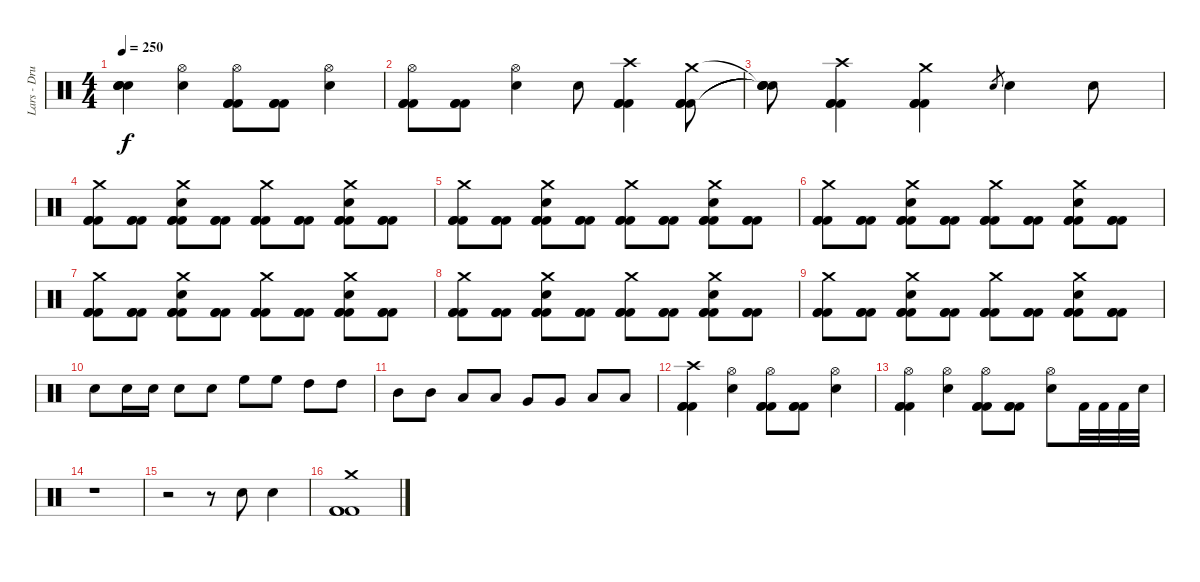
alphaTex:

\track ("Lars - Drums" "Lars - Dru") {instrument percussion}
\staff {score}
\articulation defaults
\ts (4 4)
\tempo 250
\clef neutral
\ks c
("Snare (hit)"{t} "Snare (hit)"{t} "Snare (hit)"{t} "Snare (hit)"{t}).4{dy f} ("Hi-Hat (open)" "Snare (hit) 2").4 ("Hi-Hat (open)" "Kick (hit) 2" "Kick (hit) 2" "Kick (hit) 2").8 ("Kick (hit) 2" "Kick (hit) 2" "Kick (hit) 2").8 ("Hi-Hat (open)" "Snare (hit) 2").4 |
("Hi-Hat (open)" "Kick (hit) 2" "Kick (hit) 2" "Kick (hit) 2").8 ("Kick (hit) 2" "Kick (hit) 2" "Kick (hit) 2").8 ("Hi-Hat (open)" "Snare (hit) 2").4 "Snare (hit) 2".8 ("Crash high (hit)" "Kick (hit) 2" "Kick (hit) 2" "Kick (hit) 2").4 ("Crash medium (hit)" "Kick (hit) 2" "Kick (hit) 2" "Kick (hit) 2").8 |
("Snare (hit)"{t} "Snare (hit)"{t} "Snare (hit)"{t} "Snare (hit)"{t}).8 ("Crash high (hit)" "Kick (hit) 2" "Kick (hit) 2" "Kick (hit) 2").4 ("Crash medium (hit)" "Kick (hit) 2" "Kick (hit) 2" "Kick (hit) 2").4 "Snare (hit) 2".8{gr} "Snare (hit) 2".4 "Snare (hit) 2".8 |
("Crash medium (hit)" "Kick (hit) 2" "Kick (hit) 2" "Kick (hit) 2").8 ("Kick (hit) 2" "Kick (hit) 2" "Kick (hit) 2").8 ("Crash medium (hit)" "Snare (hit) 2" "Kick (hit) 2" "Kick (hit) 2" "Kick (hit) 2").8 ("Kick (hit) 2" "Kick (hit) 2" "Kick (hit) 2").8 ("Crash medium (hit)" "Kick (hit) 2" "Kick (hit) 2" "Kick (hit) 2").8 ("Kick (hit) 2" "Kick (hit) 2" "Kick (hit) 2").8 ("Crash medium (hit)" "Snare (hit) 2" "Kick (hit) 2" "Kick (hit) 2" "Kick (hit) 2").8 ("Kick (hit) 2" "Kick (hit) 2" "Kick (hit) 2").8 |
("Crash medium (hit)" "Kick (hit) 2" "Kick (hit) 2" "Kick (hit) 2").8 ("Kick (hit) 2" "Kick (hit) 2" "Kick (hit) 2").8 ("Crash medium (hit)" "Snare (hit) 2" "Kick (hit) 2" "Kick (hit) 2" "Kick (hit) 2").8 ("Kick (hit) 2" "Kick (hit) 2" "Kick (hit) 2").8 ("Crash medium (hit)" "Kick (hit) 2" "Kick (hit) 2" "Kick (hit) 2").8 ("Kick (hit) 2" "Kick (hit) 2" "Kick (hit) 2").8 ("Crash medium (hit)" "Snare (hit) 2" "Kick (hit) 2" "Kick (hit) 2" "Kick (hit) 2").8 ("Kick (hit) 2" "Kick (hit) 2" "Kick (hit) 2").8 |
("Crash medium (hit)" "Kick (hit) 2" "Kick (hit) 2" "Kick (hit) 2").8 ("Kick (hit) 2" "Kick (hit) 2" "Kick (hit) 2").8 ("Crash medium (hit)" "Snare (hit) 2" "Kick (hit) 2" "Kick (hit) 2" "Kick (hit) 2").8 ("Kick (hit) 2" "Kick (hit) 2" "Kick (hit) 2").8 ("Crash medium (hit)" "Kick (hit) 2" "Kick (hit) 2" "Kick (hit) 2").8 ("Kick (hit) 2" "Kick (hit) 2" "Kick (hit) 2").8 ("Crash medium (hit)" "Snare (hit) 2" "Kick (hit) 2" "Kick (hit) 2" "Kick (hit) 2").8 ("Kick (hit) 2" "Kick (hit) 2" "Kick (hit) 2").8 |
("Crash medium (hit)" "Kick (hit) 2" "Kick (hit) 2" "Kick (hit) 2").8 ("Kick (hit) 2" "Kick (hit) 2" "Kick (hit) 2").8 ("Crash medium (hit)" "Snare (hit) 2" "Kick (hit) 2" "Kick (hit) 2" "Kick (hit) 2").8 ("Kick (hit) 2" "Kick (hit) 2" "Kick (hit) 2").8 ("Crash medium (hit)" "Kick (hit) 2" "Kick (hit) 2" "Kick (hit) 2").8 ("Kick (hit) 2" "Kick (hit) 2" "Kick (hit) 2").8 ("Crash medium (hit)" "Snare (hit) 2" "Kick (hit) 2" "Kick (hit) 2" "Kick (hit) 2").8 ("Kick (hit) 2" "Kick (hit) 2" "Kick (hit) 2").8 |
("Crash medium (hit)" "Kick (hit) 2" "Kick (hit) 2" "Kick (hit) 2").8 ("Kick (hit) 2" "Kick (hit) 2" "Kick (hit) 2").8 ("Crash medium (hit)" "Snare (hit) 2" "Kick (hit) 2" "Kick (hit) 2" "Kick (hit) 2").8 ("Kick (hit) 2" "Kick (hit) 2" "Kick (hit) 2").8 ("Crash medium (hit)" "Kick (hit) 2" "Kick (hit) 2" "Kick (hit) 2").8 ("Kick (hit) 2" "Kick (hit) 2" "Kick (hit) 2").8 ("Crash medium (hit)" "Snare (hit) 2" "Kick (hit) 2" "Kick (hit) 2" "Kick (hit) 2").8 ("Kick (hit) 2" "Kick (hit) 2" "Kick (hit) 2").8 |
("Crash medium (hit)" "Kick (hit) 2" "Kick (hit) 2" "Kick (hit) 2").8 ("Kick (hit) 2" "Kick (hit) 2" "Kick (hit) 2").8 ("Crash medium (hit)" "Snare (hit) 2" "Kick (hit) 2" "Kick (hit) 2" "Kick (hit) 2").8 ("Kick (hit) 2" "Kick (hit) 2" "Kick (hit) 2").8 ("Crash medium (hit)" "Kick (hit) 2" "Kick (hit) 2" "Kick (hit) 2").8 ("Kick (hit) 2" "Kick (hit) 2" "Kick (hit) 2").8 ("Crash medium (hit)" "Snare (hit) 2" "Kick (hit) 2" "Kick (hit) 2" "Kick (hit) 2").8 ("Kick (hit) 2" "Kick (hit) 2" "Kick (hit) 2").8 |
"Snare (hit) 2".8 "Snare (hit) 2".16 "Snare (hit) 2".16 "Snare (hit) 2".8 "Snare (hit) 2".8 "High Floor Tom (hit)".8 "High Floor Tom (hit)".8 "High Tom (hit)".8 "High Tom (hit)".8 |
"Mid Tom (hit)".8 "Mid Tom (hit)".8 "Low Tom (hit)".8 "Low Tom (hit)".8 "Very Low Tom (hit)".8 "Very Low Tom (hit)".8 "Low Floor Tom (hit)".8 "Low Floor Tom (hit)".8 |
("Crash high (hit)" "Kick (hit) 2" "Kick (hit) 2" "Kick (hit) 2").4 ("Hi-Hat (open)" "Snare (hit) 2").4 ("Hi-Hat (open)" "Kick (hit) 2" "Kick (hit) 2" "Kick (hit) 2").8 ("Kick (hit) 2" "Kick (hit) 2" "Kick (hit) 2").8 ("Hi-Hat (open)" "Snare (hit) 2").4 |
("Hi-Hat (open)" "Kick (hit) 2" "Kick (hit) 2" "Kick (hit) 2").4 ("Hi-Hat (open)" "Snare (hit) 2").4 ("Hi-Hat (open)" "Kick (hit) 2" "Kick (hit) 2" "Kick (hit) 2").8 ("Kick (hit) 2" "Kick (hit) 2" "Kick (hit) 2").8 ("Hi-Hat (open)" "Snare (hit) 2").8 "Kick (hit) 2".32 "Kick (hit) 2".32 "Kick (hit) 2".32 "Snare (hit) 2".32 |
r.1 |
r.2 r.8 "Snare (hit) 2".8 "Snare (hit) 2".4 |
("Crash medium (hit)" "Kick (hit) 2" "Kick (hit) 2" "Kick (hit) 2").1
